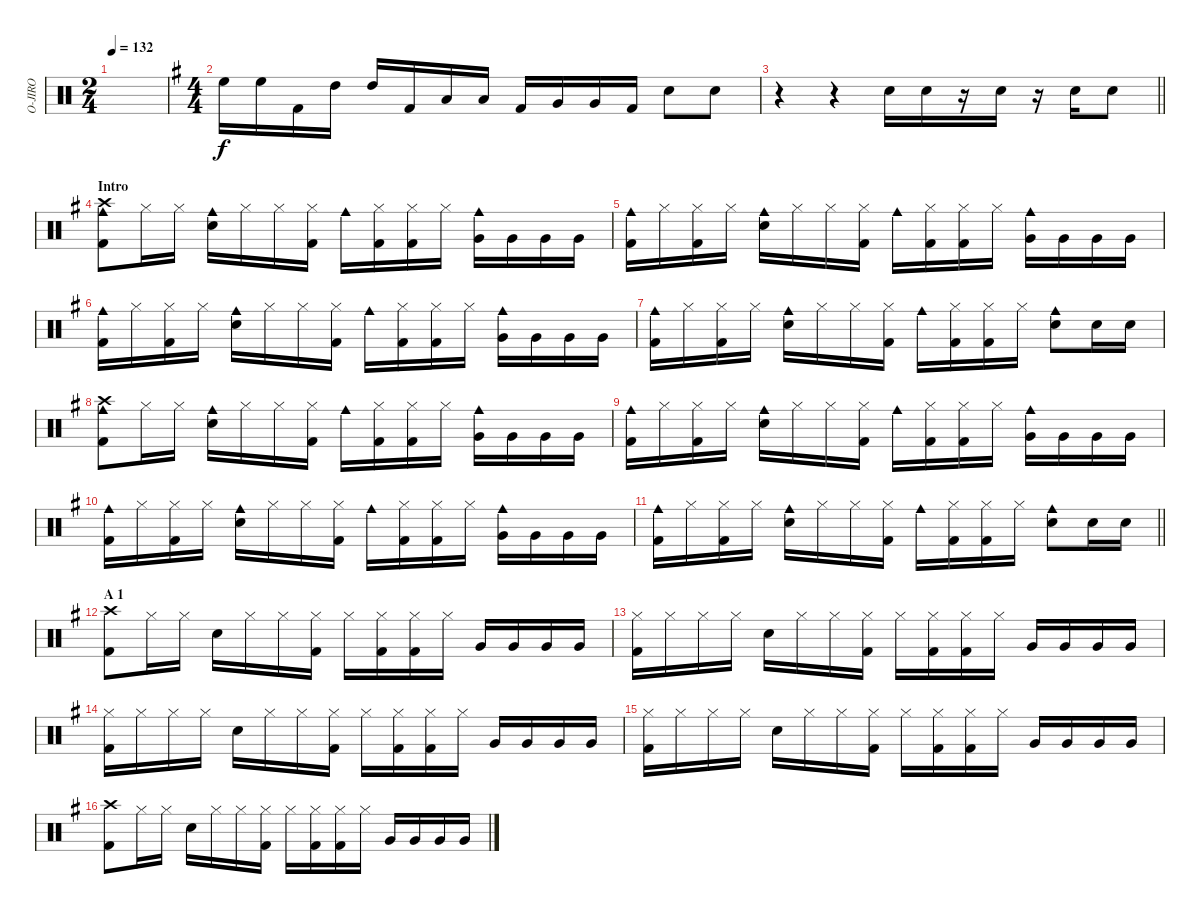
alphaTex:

\track ("O-JIRO" "O-JIRO") {instrument percussion}
\staff {score}
\articulation defaults
\ts (2 4)
\tempo 132
\clef neutral
\ks c
|
\ts (4 4)
\ks g "High Floor Tom (hit)".16 "High Floor Tom (hit)".16 "Kick (hit) 2".16 "High Tom (hit)".16 "High Tom (hit)".16 "Kick (hit) 2".16 "Low Tom (hit)".16 "Low Tom (hit)".16 "Kick (hit) 2".16 "Very Low Tom (hit)".16 "Very Low Tom (hit)".16 "Kick (hit) 2".16 "Snare (hit) 2".8 "Snare (hit) 2".8
|
\barLineRight lightlight
r.4 r.4 "Snare (hit) 2".16 "Snare (hit) 2".16 r.16 "Snare (hit) 2".16 r.16 "Snare (hit) 2".16 "Snare (hit) 2".8 |
\section ("" "Intro ")
("Crash high (hit)" "Cowbell medium (hit)" "Kick (hit) 2").8 "Hi-Hat (closed)".16 "Hi-Hat (closed)".16 ("Cowbell medium (hit)" "Snare (hit) 2").16 "Hi-Hat (closed)".16 "Hi-Hat (closed)".16 ("Hi-Hat (closed)" "Kick (hit) 2").16 "Cowbell medium (hit)".16 ("Hi-Hat (closed)" "Kick (hit) 2").16 ("Hi-Hat (closed)" "Kick (hit) 2").16 "Hi-Hat (closed)".16 ("Cowbell medium (hit)" "Very Low Tom (hit)").16 "Very Low Tom (hit)".16 "Very Low Tom (hit)".16 "Very Low Tom (hit)".16 |
("Cowbell medium (hit)" "Kick (hit) 2").16 "Hi-Hat (closed)".16 ("Hi-Hat (closed)" "Kick (hit) 2").16 "Hi-Hat (closed)".16 ("Cowbell medium (hit)" "Snare (hit) 2").16 "Hi-Hat (closed)".16 "Hi-Hat (closed)".16 ("Hi-Hat (closed)" "Kick (hit) 2").16 "Cowbell medium (hit)".16 ("Hi-Hat (closed)" "Kick (hit) 2").16 ("Hi-Hat (closed)" "Kick (hit) 2").16 "Hi-Hat (closed)".16 ("Cowbell medium (hit)" "Very Low Tom (hit)").16 "Very Low Tom (hit)".16 "Very Low Tom (hit)".16 "Very Low Tom (hit)".16 |
("Cowbell medium (hit)" "Kick (hit) 2").16 "Hi-Hat (closed)".16 ("Hi-Hat (closed)" "Kick (hit) 2").16 "Hi-Hat (closed)".16 ("Cowbell medium (hit)" "Snare (hit) 2").16 "Hi-Hat (closed)".16 "Hi-Hat (closed)".16 ("Hi-Hat (closed)" "Kick (hit) 2").16 "Cowbell medium (hit)".16 ("Hi-Hat (closed)" "Kick (hit) 2").16 ("Hi-Hat (closed)" "Kick (hit) 2").16 "Hi-Hat (closed)".16 ("Cowbell medium (hit)" "Very Low Tom (hit)").16 "Very Low Tom (hit)".16 "Very Low Tom (hit)".16 "Very Low Tom (hit)".16 |
("Cowbell medium (hit)" "Kick (hit) 2").16 "Hi-Hat (closed)".16 ("Hi-Hat (closed)" "Kick (hit) 2").16 "Hi-Hat (closed)".16 ("Cowbell medium (hit)" "Snare (hit) 2").16 "Hi-Hat (closed)".16 "Hi-Hat (closed)".16 ("Hi-Hat (closed)" "Kick (hit) 2").16 "Cowbell medium (hit)".16 ("Hi-Hat (closed)" "Kick (hit) 2").16 ("Hi-Hat (closed)" "Kick (hit) 2").16 "Hi-Hat (closed)".16 ("Cowbell medium (hit)" "Snare (hit) 2").8 "Snare (hit) 2".16 "Snare (hit) 2".16 |
("Crash high (hit)" "Cowbell medium (hit)" "Kick (hit) 2").8 "Hi-Hat (closed)".16 "Hi-Hat (closed)".16 ("Cowbell medium (hit)" "Snare (hit) 2").16 "Hi-Hat (closed)".16 "Hi-Hat (closed)".16 ("Hi-Hat (closed)" "Kick (hit) 2").16 "Cowbell medium (hit)".16 ("Hi-Hat (closed)" "Kick (hit) 2").16 ("Hi-Hat (closed)" "Kick (hit) 2").16 "Hi-Hat (closed)".16 ("Cowbell medium (hit)" "Very Low Tom (hit)").16 "Very Low Tom (hit)".16 "Very Low Tom (hit)".16 "Very Low Tom (hit)".16 |
("Cowbell medium (hit)" "Kick (hit) 2").16 "Hi-Hat (closed)".16 ("Hi-Hat (closed)" "Kick (hit) 2").16 "Hi-Hat (closed)".16 ("Cowbell medium (hit)" "Snare (hit) 2").16 "Hi-Hat (closed)".16 "Hi-Hat (closed)".16 ("Hi-Hat (closed)" "Kick (hit) 2").16 "Cowbell medium (hit)".16 ("Hi-Hat (closed)" "Kick (hit) 2").16 ("Hi-Hat (closed)" "Kick (hit) 2").16 "Hi-Hat (closed)".16 ("Cowbell medium (hit)" "Very Low Tom (hit)").16 "Very Low Tom (hit)".16 "Very Low Tom (hit)".16 "Very Low Tom (hit)".16 |
("Cowbell medium (hit)" "Kick (hit) 2").16 "Hi-Hat (closed)".16 ("Hi-Hat (closed)" "Kick (hit) 2").16 "Hi-Hat (closed)".16 ("Cowbell medium (hit)" "Snare (hit) 2").16 "Hi-Hat (closed)".16 "Hi-Hat (closed)".16 ("Hi-Hat (closed)" "Kick (hit) 2").16 "Cowbell medium (hit)".16 ("Hi-Hat (closed)" "Kick (hit) 2").16 ("Hi-Hat (closed)" "Kick (hit) 2").16 "Hi-Hat (closed)".16 ("Cowbell medium (hit)" "Very Low Tom (hit)").16 "Very Low Tom (hit)".16 "Very Low Tom (hit)".16 "Very Low Tom (hit)".16 |
\barLineRight lightlight
("Cowbell medium (hit)" "Kick (hit) 2").16 "Hi-Hat (closed)".16 ("Hi-Hat (closed)" "Kick (hit) 2").16 "Hi-Hat (closed)".16 ("Cowbell medium (hit)" "Snare (hit) 2").16 "Hi-Hat (closed)".16 "Hi-Hat (closed)".16 ("Hi-Hat (closed)" "Kick (hit) 2").16 "Cowbell medium (hit)".16 ("Hi-Hat (closed)" "Kick (hit) 2").16 ("Hi-Hat (closed)" "Kick (hit) 2").16 "Hi-Hat (closed)".16 ("Cowbell medium (hit)" "Snare (hit) 2").8 "Snare (hit) 2".16 "Snare (hit) 2".16 |
\section ("" "A 1")
("Crash high (hit)" "Kick (hit) 2").8 "Hi-Hat (closed)".16 "Hi-Hat (closed)".16 "Snare (hit) 2".16 "Hi-Hat (closed)".16 "Hi-Hat (closed)".16 ("Hi-Hat (closed)" "Kick (hit) 2").16 "Hi-Hat (closed)".16 ("Hi-Hat (closed)" "Kick (hit) 2").16 ("Hi-Hat (closed)" "Kick (hit) 2").16 "Hi-Hat (closed)".16 "Very Low Tom (hit)".16 "Very Low Tom (hit)".16 "Very Low Tom (hit)".16 "Very Low Tom (hit)".16 |
("Hi-Hat (closed)" "Kick (hit) 2").16 "Hi-Hat (closed)".16 "Hi-Hat (closed)".16 "Hi-Hat (closed)".16 "Snare (hit) 2".16 "Hi-Hat (closed)".16 "Hi-Hat (closed)".16 ("Hi-Hat (closed)" "Kick (hit) 2").16 "Hi-Hat (closed)".16 ("Hi-Hat (closed)" "Kick (hit) 2").16 ("Hi-Hat (closed)" "Kick (hit) 2").16 "Hi-Hat (closed)".16 "Very Low Tom (hit)".16 "Very Low Tom (hit)".16 "Very Low Tom (hit)".16 "Very Low Tom (hit)".16 |
("Hi-Hat (closed)" "Kick (hit) 2").16 "Hi-Hat (closed)".16 "Hi-Hat (closed)".16 "Hi-Hat (closed)".16 "Snare (hit) 2".16 "Hi-Hat (closed)".16 "Hi-Hat (closed)".16 ("Hi-Hat (closed)" "Kick (hit) 2").16 "Hi-Hat (closed)".16 ("Hi-Hat (closed)" "Kick (hit) 2").16 ("Hi-Hat (closed)" "Kick (hit) 2").16 "Hi-Hat (closed)".16 "Very Low Tom (hit)".16 "Very Low Tom (hit)".16 "Very Low Tom (hit)".16 "Very Low Tom (hit)".16 |
("Hi-Hat (closed)" "Kick (hit) 2").16 "Hi-Hat (closed)".16 "Hi-Hat (closed)".16 "Hi-Hat (closed)".16 "Snare (hit) 2".16 "Hi-Hat (closed)".16 "Hi-Hat (closed)".16 ("Hi-Hat (closed)" "Kick (hit) 2").16 "Hi-Hat (closed)".16 ("Hi-Hat (closed)" "Kick (hit) 2").16 ("Hi-Hat (closed)" "Kick (hit) 2").16 "Hi-Hat (closed)".16 "Very Low Tom (hit)".16 "Very Low Tom (hit)".16 "Very Low Tom (hit)".16 "Very Low Tom (hit)".16 |
("Crash high (hit)" "Kick (hit) 2").8 "Hi-Hat (closed)".16 "Hi-Hat (closed)".16 "Snare (hit) 2".16 "Hi-Hat (closed)".16 "Hi-Hat (closed)".16 ("Hi-Hat (closed)" "Kick (hit) 2").16 "Hi-Hat (closed)".16 ("Hi-Hat (closed)" "Kick (hit) 2").16 ("Hi-Hat (closed)" "Kick (hit) 2").16 "Hi-Hat (closed)".16 "Very Low Tom (hit)".16 "Very Low Tom (hit)".16 "Very Low Tom (hit)".16 "Very Low Tom (hit)".16
